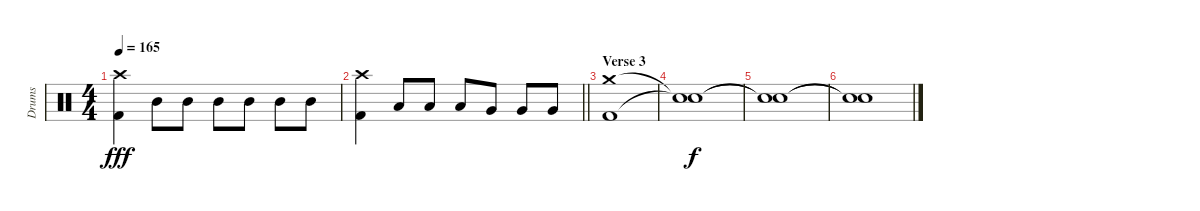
\track ("Drums" "Drums") {instrument percussion}
\staff {score}
\articulation defaults
\ts (4 4)
\tempo 165
\clef neutral
\ks c
("Crash high (hit)" "Kick (hit) 2").4{dy fff} "Mid Tom (hit)".8 "Mid Tom (hit)".8 "Mid Tom (hit)".8 "Mid Tom (hit)".8 "Mid Tom (hit)".8 "Mid Tom (hit)".8 |
\barLineRight lightlight
("Crash high (hit)" "Kick (hit) 2").4 "Low Tom (hit)".8 "Low Tom (hit)".8 "Low Tom (hit)".8 "Very Low Tom (hit)".8 "Very Low Tom (hit)".8 "Very Low Tom (hit)".8 |
\section ("" "Verse 3")
("Crash medium (hit)" "Kick (hit) 2").1 |
("Snare (hit)"{t} "Snare (hit)"{t}).1{dy f} |
("Snare (hit)"{t} "Snare (hit)"{t}).1 |
("Snare (hit)"{t} "Snare (hit)"{t}).1
